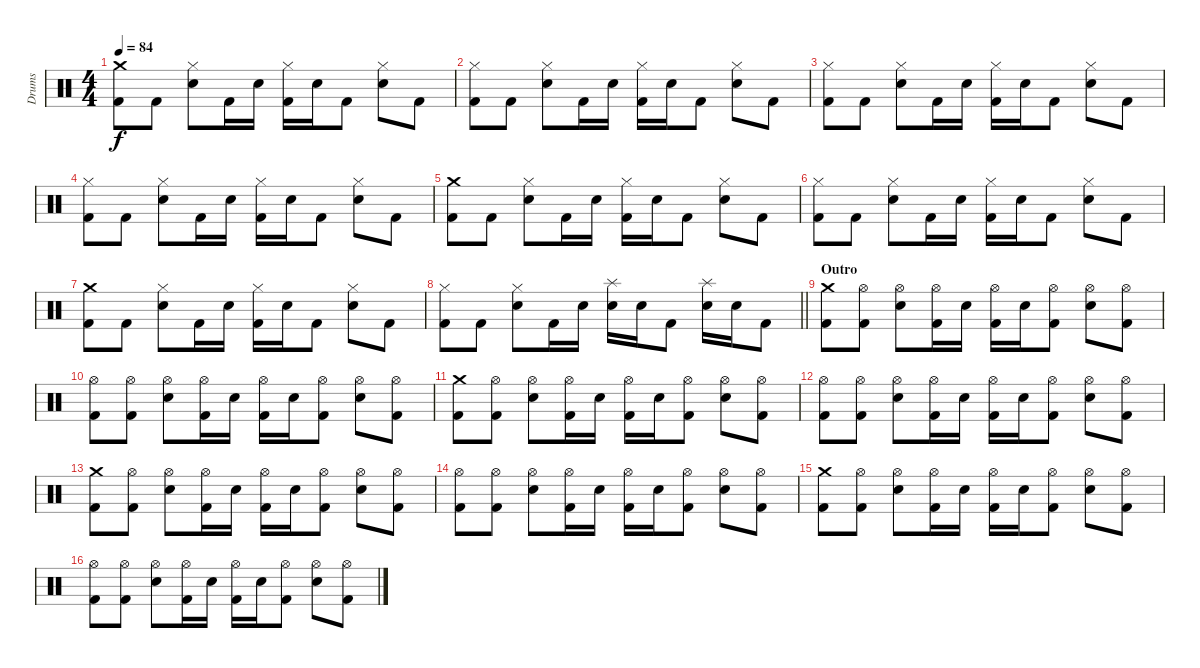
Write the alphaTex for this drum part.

\track ("Drums" "Drums") {instrument percussion}
\staff {score}
\articulation defaults
\ts (4 4)
\tempo 84
\clef neutral
\ks c
("Crash medium (hit)" "Kick (hit) 2").8{dy f} "Kick (hit) 2".8 ("Hi-Hat (closed)" "Snare (hit) 2").8 "Kick (hit) 2".16 "Snare (hit) 2".16 ("Hi-Hat (closed)" "Kick (hit) 2").16 "Snare (hit) 2".16 "Kick (hit) 2".8 ("Hi-Hat (closed)" "Snare (hit) 2").8 "Kick (hit) 2".8 |
("Hi-Hat (closed)" "Kick (hit) 2").8 "Kick (hit) 2".8 ("Hi-Hat (closed)" "Snare (hit) 2").8 "Kick (hit) 2".16 "Snare (hit) 2".16 ("Hi-Hat (closed)" "Kick (hit) 2").16 "Snare (hit) 2".16 "Kick (hit) 2".8 ("Hi-Hat (closed)" "Snare (hit) 2").8 "Kick (hit) 2".8 |
("Hi-Hat (closed)" "Kick (hit) 2").8 "Kick (hit) 2".8 ("Hi-Hat (closed)" "Snare (hit) 2").8 "Kick (hit) 2".16 "Snare (hit) 2".16 ("Hi-Hat (closed)" "Kick (hit) 2").16 "Snare (hit) 2".16 "Kick (hit) 2".8 ("Hi-Hat (closed)" "Snare (hit) 2").8 "Kick (hit) 2".8 |
("Hi-Hat (closed)" "Kick (hit) 2").8 "Kick (hit) 2".8 ("Hi-Hat (closed)" "Snare (hit) 2").8 "Kick (hit) 2".16 "Snare (hit) 2".16 ("Hi-Hat (closed)" "Kick (hit) 2").16 "Snare (hit) 2".16 "Kick (hit) 2".8 ("Hi-Hat (closed)" "Snare (hit) 2").8 "Kick (hit) 2".8 |
("Crash medium (hit)" "Kick (hit) 2").8 "Kick (hit) 2".8 ("Hi-Hat (closed)" "Snare (hit) 2").8 "Kick (hit) 2".16 "Snare (hit) 2".16 ("Hi-Hat (closed)" "Kick (hit) 2").16 "Snare (hit) 2".16 "Kick (hit) 2".8 ("Hi-Hat (closed)" "Snare (hit) 2").8 "Kick (hit) 2".8 |
("Hi-Hat (closed)" "Kick (hit) 2").8 "Kick (hit) 2".8 ("Hi-Hat (closed)" "Snare (hit) 2").8 "Kick (hit) 2".16 "Snare (hit) 2".16 ("Hi-Hat (closed)" "Kick (hit) 2").16 "Snare (hit) 2".16 "Kick (hit) 2".8 ("Hi-Hat (closed)" "Snare (hit) 2").8 "Kick (hit) 2".8 |
("Crash medium (hit)" "Kick (hit) 2").8 "Kick (hit) 2".8 ("Hi-Hat (closed)" "Snare (hit) 2").8 "Kick (hit) 2".16 "Snare (hit) 2".16 ("Hi-Hat (closed)" "Kick (hit) 2").16 "Snare (hit) 2".16 "Kick (hit) 2".8 ("Hi-Hat (closed)" "Snare (hit) 2").8 "Kick (hit) 2".8 |
\barLineRight lightlight
("Hi-Hat (closed)" "Kick (hit) 2").8 "Kick (hit) 2".8 ("Hi-Hat (closed)" "Snare (hit) 2").8 "Kick (hit) 2".16 "Snare (hit) 2".16 ("Splash (hit)" "Snare (hit) 2").16 "Snare (hit) 2".16 "Kick (hit) 2".8 ("Splash (hit)" "Snare (hit) 2").16 "Snare (hit) 2".16 "Kick (hit) 2".8 |
\section ("" "Outro")
("Crash medium (hit)" "Kick (hit) 2").8 ("Hi-Hat (open)" "Kick (hit) 2").8 ("Hi-Hat (open)" "Snare (hit) 2").8 ("Hi-Hat (open)" "Kick (hit) 2").16 "Snare (hit) 2".16 ("Hi-Hat (open)" "Kick (hit) 2").16 "Snare (hit) 2".16 ("Hi-Hat (open)" "Kick (hit) 2").8 ("Hi-Hat (open)" "Snare (hit) 2").8 ("Hi-Hat (open)" "Kick (hit) 2").8 |
("Hi-Hat (open)" "Kick (hit) 2").8 ("Hi-Hat (open)" "Kick (hit) 2").8 ("Hi-Hat (open)" "Snare (hit) 2").8 ("Hi-Hat (open)" "Kick (hit) 2").16 "Snare (hit) 2".16 ("Hi-Hat (open)" "Kick (hit) 2").16 "Snare (hit) 2".16 ("Hi-Hat (open)" "Kick (hit) 2").8 ("Hi-Hat (open)" "Snare (hit) 2").8 ("Hi-Hat (open)" "Kick (hit) 2").8 |
("Crash medium (hit)" "Kick (hit) 2").8 ("Hi-Hat (open)" "Kick (hit) 2").8 ("Hi-Hat (open)" "Snare (hit) 2").8 ("Hi-Hat (open)" "Kick (hit) 2").16 "Snare (hit) 2".16 ("Hi-Hat (open)" "Kick (hit) 2").16 "Snare (hit) 2".16 ("Hi-Hat (open)" "Kick (hit) 2").8 ("Hi-Hat (open)" "Snare (hit) 2").8 ("Hi-Hat (open)" "Kick (hit) 2").8 |
("Hi-Hat (open)" "Kick (hit) 2").8 ("Hi-Hat (open)" "Kick (hit) 2").8 ("Hi-Hat (open)" "Snare (hit) 2").8 ("Hi-Hat (open)" "Kick (hit) 2").16 "Snare (hit) 2".16 ("Hi-Hat (open)" "Kick (hit) 2").16 "Snare (hit) 2".16 ("Hi-Hat (open)" "Kick (hit) 2").8 ("Hi-Hat (open)" "Snare (hit) 2").8 ("Hi-Hat (open)" "Kick (hit) 2").8 |
("Crash medium (hit)" "Kick (hit) 2").8 ("Hi-Hat (open)" "Kick (hit) 2").8 ("Hi-Hat (open)" "Snare (hit) 2").8 ("Hi-Hat (open)" "Kick (hit) 2").16 "Snare (hit) 2".16 ("Hi-Hat (open)" "Kick (hit) 2").16 "Snare (hit) 2".16 ("Hi-Hat (open)" "Kick (hit) 2").8 ("Hi-Hat (open)" "Snare (hit) 2").8 ("Hi-Hat (open)" "Kick (hit) 2").8 |
("Hi-Hat (open)" "Kick (hit) 2").8 ("Hi-Hat (open)" "Kick (hit) 2").8 ("Hi-Hat (open)" "Snare (hit) 2").8 ("Hi-Hat (open)" "Kick (hit) 2").16 "Snare (hit) 2".16 ("Hi-Hat (open)" "Kick (hit) 2").16 "Snare (hit) 2".16 ("Hi-Hat (open)" "Kick (hit) 2").8 ("Hi-Hat (open)" "Snare (hit) 2").8 ("Hi-Hat (open)" "Kick (hit) 2").8 |
("Crash medium (hit)" "Kick (hit) 2").8 ("Hi-Hat (open)" "Kick (hit) 2").8 ("Hi-Hat (open)" "Snare (hit) 2").8 ("Hi-Hat (open)" "Kick (hit) 2").16 "Snare (hit) 2".16 ("Hi-Hat (open)" "Kick (hit) 2").16 "Snare (hit) 2".16 ("Hi-Hat (open)" "Kick (hit) 2").8 ("Hi-Hat (open)" "Snare (hit) 2").8 ("Hi-Hat (open)" "Kick (hit) 2").8 |
("Hi-Hat (open)" "Kick (hit) 2").8 ("Hi-Hat (open)" "Kick (hit) 2").8 ("Hi-Hat (open)" "Snare (hit) 2").8 ("Hi-Hat (open)" "Kick (hit) 2").16 "Snare (hit) 2".16 ("Hi-Hat (open)" "Kick (hit) 2").16 "Snare (hit) 2".16 ("Hi-Hat (open)" "Kick (hit) 2").8 ("Hi-Hat (open)" "Snare (hit) 2").8 ("Hi-Hat (open)" "Kick (hit) 2").8
